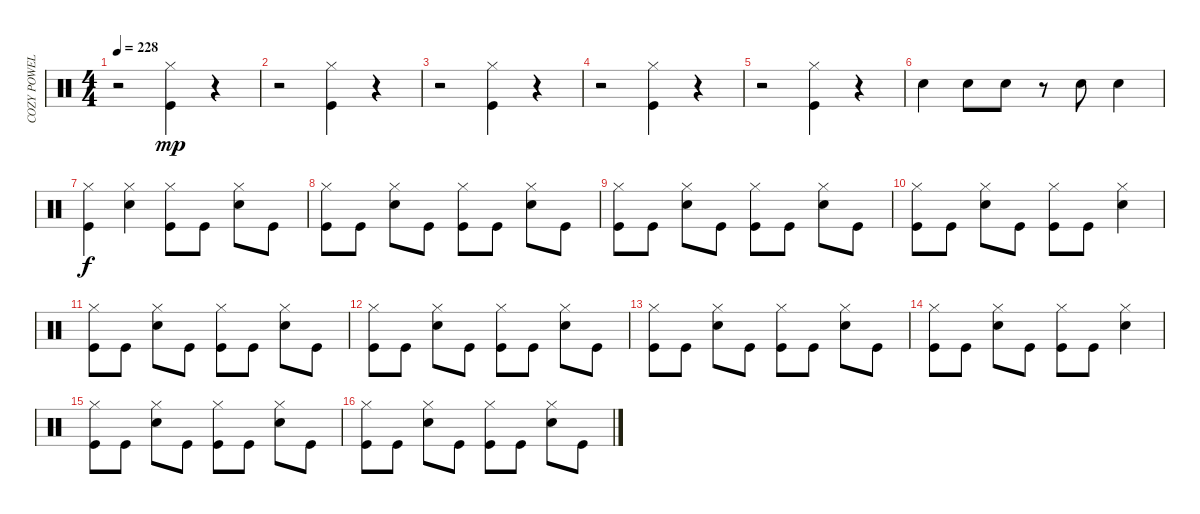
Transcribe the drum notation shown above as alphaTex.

\track ("COZY POWELL" "COZY POWEL") {instrument percussion}
\staff {score}
\articulation defaults
\ts (4 4)
\tempo 228
\clef neutral
\ks c
r.2{dy mp} ("Hi-Hat (closed)" "Kick (hit)").4 r.4 |
r.2 ("Hi-Hat (closed)" "Kick (hit)").4 r.4 |
r.2 ("Hi-Hat (closed)" "Kick (hit)").4 r.4 |
r.2 ("Hi-Hat (closed)" "Kick (hit)").4 r.4 |
r.2 ("Hi-Hat (closed)" "Kick (hit)").4 r.4 |
"Snare (hit) 2".4 "Snare (hit) 2".8 "Snare (hit) 2".8 r.8 "Snare (hit) 2".8 "Snare (hit) 2".4 |
("Hi-Hat (closed)" "Kick (hit)").4{dy f} ("Hi-Hat (closed)" "Snare (hit) 2").4 ("Hi-Hat (closed)" "Kick (hit)").8 "Kick (hit)".8 ("Hi-Hat (closed)" "Snare (hit) 2").8 "Kick (hit)".8 |
("Hi-Hat (closed)" "Kick (hit)").8 "Kick (hit)".8 ("Hi-Hat (closed)" "Snare (hit) 2").8 "Kick (hit)".8 ("Hi-Hat (closed)" "Kick (hit)").8 "Kick (hit)".8 ("Hi-Hat (closed)" "Snare (hit) 2").8 "Kick (hit)".8 |
("Hi-Hat (closed)" "Kick (hit)").8 "Kick (hit)".8 ("Hi-Hat (closed)" "Snare (hit) 2").8 "Kick (hit)".8 ("Hi-Hat (closed)" "Kick (hit)").8 "Kick (hit)".8 ("Hi-Hat (closed)" "Snare (hit) 2").8 "Kick (hit)".8 |
("Hi-Hat (closed)" "Kick (hit)").8 "Kick (hit)".8 ("Hi-Hat (closed)" "Snare (hit) 2").8 "Kick (hit)".8 ("Hi-Hat (closed)" "Kick (hit)").8 "Kick (hit)".8 ("Hi-Hat (closed)" "Snare (hit) 2").4 |
("Hi-Hat (closed)" "Kick (hit)").8 "Kick (hit)".8 ("Hi-Hat (closed)" "Snare (hit) 2").8 "Kick (hit)".8 ("Hi-Hat (closed)" "Kick (hit)").8 "Kick (hit)".8 ("Hi-Hat (closed)" "Snare (hit) 2").8 "Kick (hit)".8 |
("Hi-Hat (closed)" "Kick (hit)").8 "Kick (hit)".8 ("Hi-Hat (closed)" "Snare (hit) 2").8 "Kick (hit)".8 ("Hi-Hat (closed)" "Kick (hit)").8 "Kick (hit)".8 ("Hi-Hat (closed)" "Snare (hit) 2").8 "Kick (hit)".8 |
("Hi-Hat (closed)" "Kick (hit)").8 "Kick (hit)".8 ("Hi-Hat (closed)" "Snare (hit) 2").8 "Kick (hit)".8 ("Hi-Hat (closed)" "Kick (hit)").8 "Kick (hit)".8 ("Hi-Hat (closed)" "Snare (hit) 2").8 "Kick (hit)".8 |
("Hi-Hat (closed)" "Kick (hit)").8 "Kick (hit)".8 ("Hi-Hat (closed)" "Snare (hit) 2").8 "Kick (hit)".8 ("Hi-Hat (closed)" "Kick (hit)").8 "Kick (hit)".8 ("Hi-Hat (closed)" "Snare (hit) 2").4 |
("Hi-Hat (closed)" "Kick (hit)").8 "Kick (hit)".8 ("Hi-Hat (closed)" "Snare (hit) 2").8 "Kick (hit)".8 ("Hi-Hat (closed)" "Kick (hit)").8 "Kick (hit)".8 ("Hi-Hat (closed)" "Snare (hit) 2").8 "Kick (hit)".8 |
("Hi-Hat (closed)" "Kick (hit)").8 "Kick (hit)".8 ("Hi-Hat (closed)" "Snare (hit) 2").8 "Kick (hit)".8 ("Hi-Hat (closed)" "Kick (hit)").8 "Kick (hit)".8 ("Hi-Hat (closed)" "Snare (hit) 2").8 "Kick (hit)".8
